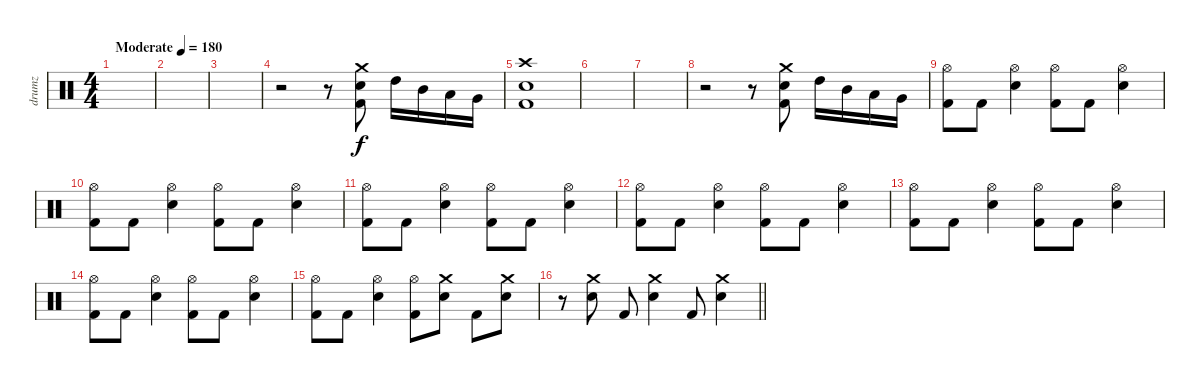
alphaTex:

\track ("drumz" "drumz") {instrument percussion}
\staff {score}
\articulation defaults
\ts (4 4)
\tempo (180 "Moderate")
\clef neutral
\ks c
|
|
|
r.2 r.8 ("Crash medium (hit)" "Electric Snare (hit)" "Kick (hit) 2").8 "High Tom (hit)".16 "Mid Tom (hit)".16 "Low Tom (hit)".16 "Very Low Tom (hit)".16 |
("Crash high (hit)" "Electric Snare (hit)" "Kick (hit) 2").1 |
|
|
r.2 r.8 ("Crash medium (hit)" "Electric Snare (hit)" "Kick (hit) 2").8 "High Tom (hit)".16 "Mid Tom (hit)".16 "Low Tom (hit)".16 "Very Low Tom (hit)".16 |
("Hi-Hat (open)" "Kick (hit) 2").8 "Kick (hit) 2".8 ("Hi-Hat (open)" "Electric Snare (hit)").4 ("Hi-Hat (open)" "Kick (hit) 2").8 "Kick (hit) 2".8 ("Hi-Hat (open)" "Electric Snare (hit)").4 |
("Hi-Hat (open)" "Kick (hit) 2").8 "Kick (hit) 2".8 ("Hi-Hat (open)" "Electric Snare (hit)").4 ("Hi-Hat (open)" "Kick (hit) 2").8 "Kick (hit) 2".8 ("Hi-Hat (open)" "Electric Snare (hit)").4 |
("Hi-Hat (open)" "Kick (hit) 2").8 "Kick (hit) 2".8 ("Hi-Hat (open)" "Electric Snare (hit)").4 ("Hi-Hat (open)" "Kick (hit) 2").8 "Kick (hit) 2".8 ("Hi-Hat (open)" "Electric Snare (hit)").4 |
("Hi-Hat (open)" "Kick (hit) 2").8 "Kick (hit) 2".8 ("Hi-Hat (open)" "Electric Snare (hit)").4 ("Hi-Hat (open)" "Kick (hit) 2").8 "Kick (hit) 2".8 ("Hi-Hat (open)" "Electric Snare (hit)").4 |
("Hi-Hat (open)" "Kick (hit) 2").8 "Kick (hit) 2".8 ("Hi-Hat (open)" "Electric Snare (hit)").4 ("Hi-Hat (open)" "Kick (hit) 2").8 "Kick (hit) 2".8 ("Hi-Hat (open)" "Electric Snare (hit)").4 |
("Hi-Hat (open)" "Kick (hit) 2").8 "Kick (hit) 2".8 ("Hi-Hat (open)" "Electric Snare (hit)").4 ("Hi-Hat (open)" "Kick (hit) 2").8 "Kick (hit) 2".8 ("Hi-Hat (open)" "Electric Snare (hit)").4 |
("Hi-Hat (open)" "Kick (hit) 2").8 "Kick (hit) 2".8 ("Hi-Hat (open)" "Electric Snare (hit)").4 ("Hi-Hat (open)" "Kick (hit) 2").8 ("Crash medium (hit)" "Electric Snare (hit)").8 "Kick (hit) 2".8 ("Crash medium (hit)" "Electric Snare (hit)").8 |
\barLineRight lightlight
r.8 ("Crash medium (hit)" "Electric Snare (hit)").8 "Kick (hit) 2".8 ("Crash medium (hit)" "Electric Snare (hit)").4 "Kick (hit) 2".8 ("Crash medium (hit)" "Electric Snare (hit)").4
